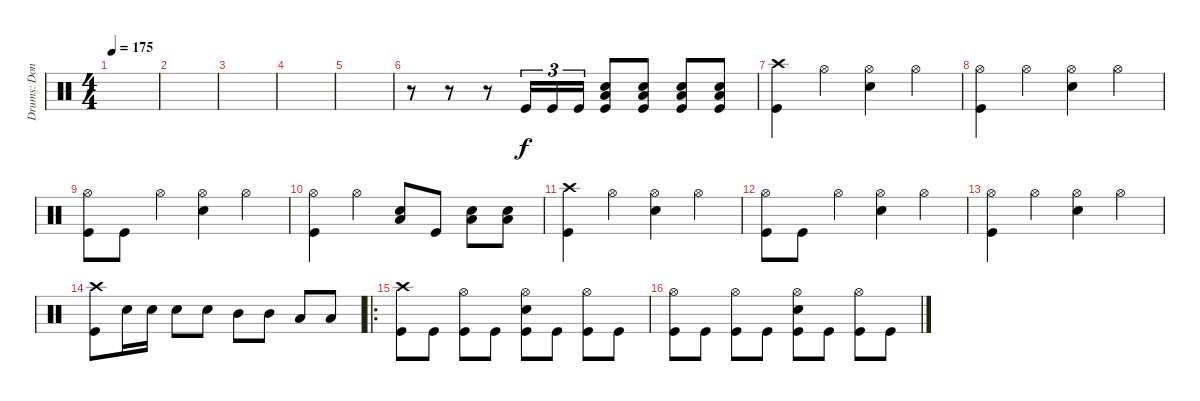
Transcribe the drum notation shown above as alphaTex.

\track ("Drums: Donald Tardy" "Drums: Don") {instrument percussion}
\staff {score}
\articulation defaults
\ts (4 4)
\tempo 175
\clef neutral
\ks c
|
|
|
|
|
r.8 r.8 r.8 "Kick (hit)".16{tu (3 2)} "Kick (hit)".16{tu (3 2)} "Kick (hit)".16{tu (3 2)} ("Low Floor Tom (hit)" "Snare (hit) 2" "Kick (hit)").8 ("Low Floor Tom (hit)" "Snare (hit) 2" "Kick (hit)").8 ("Low Floor Tom (hit)" "Snare (hit) 2" "Kick (hit)").8 ("Low Floor Tom (hit)" "Snare (hit) 2" "Kick (hit)").8 |
("Crash high (hit)" "Kick (hit)").4 "Hi-Hat (open)".4 ("Hi-Hat (open)" "Snare (hit) 2").4 "Hi-Hat (open)".4 |
("Hi-Hat (open)" "Kick (hit)").4 "Hi-Hat (open)".4 ("Hi-Hat (open)" "Snare (hit) 2").4 "Hi-Hat (open)".4 |
("Hi-Hat (open)" "Kick (hit)").8 "Kick (hit)".8 "Hi-Hat (open)".4 ("Hi-Hat (open)" "Snare (hit) 2").4 "Hi-Hat (open)".4 |
("Hi-Hat (open)" "Kick (hit)").4 "Hi-Hat (open)".4 ("Low Floor Tom (hit)" "Snare (hit) 2").8 "Kick (hit)".8 ("Low Floor Tom (hit)" "Snare (hit) 2").8 ("Low Floor Tom (hit)" "Snare (hit) 2").8 |
("Crash high (hit)" "Kick (hit)").4 "Hi-Hat (open)".4 ("Hi-Hat (open)" "Snare (hit) 2").4 "Hi-Hat (open)".4 |
("Hi-Hat (open)" "Kick (hit)").8 "Kick (hit)".8 "Hi-Hat (open)".4 ("Hi-Hat (open)" "Snare (hit) 2").4 "Hi-Hat (open)".4 |
("Hi-Hat (open)" "Kick (hit)").4 "Hi-Hat (open)".4 ("Hi-Hat (open)" "Snare (hit) 2").4 "Hi-Hat (open)".4 |
("Crash high (hit)" "Kick (hit)").8 "Snare (hit) 2".16 "Snare (hit) 2".16 "Snare (hit) 2".8 "Snare (hit) 2".8 "Mid Tom (hit)".8 "Mid Tom (hit)".8 "Low Tom (hit)".8 "Low Tom (hit)".8 |
\ro
("Crash high (hit)" "Kick (hit)").8 "Kick (hit)".8 ("Hi-Hat (open)" "Kick (hit)").8 "Kick (hit)".8 ("Hi-Hat (open)" "Snare (hit) 2" "Kick (hit)").8 "Kick (hit)".8 ("Hi-Hat (open)" "Kick (hit)").8 "Kick (hit)".8 |
("Hi-Hat (open)" "Kick (hit)").8 "Kick (hit)".8 ("Hi-Hat (open)" "Kick (hit)").8 "Kick (hit)".8 ("Hi-Hat (open)" "Snare (hit) 2" "Kick (hit)").8 "Kick (hit)".8 ("Hi-Hat (open)" "Kick (hit)").8 "Kick (hit)".8
